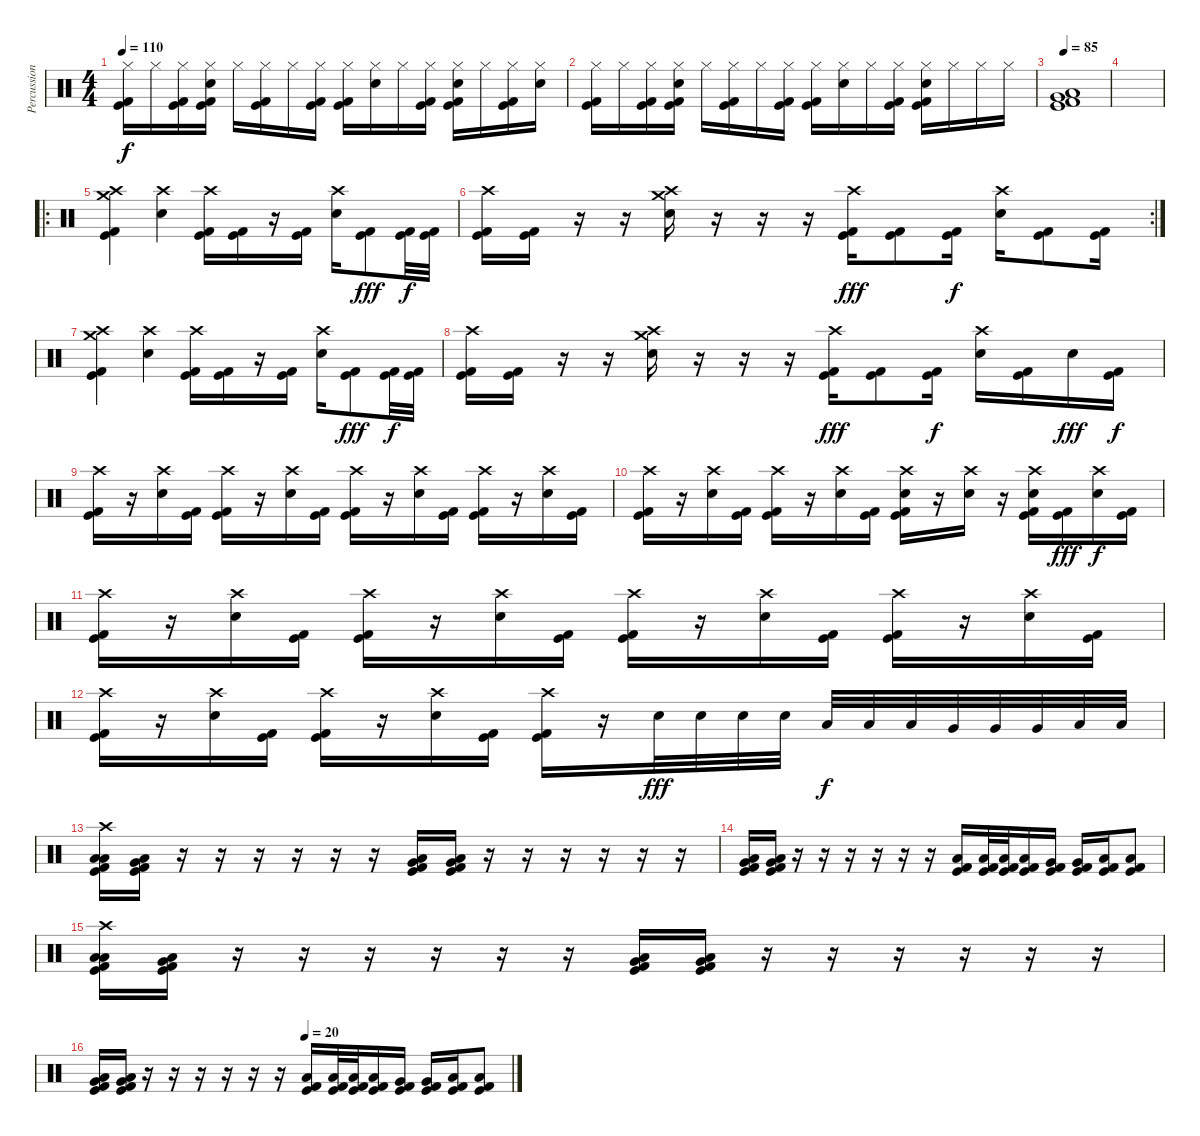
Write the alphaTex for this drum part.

\track ("Percussion" "Percussion") {instrument percussion}
\staff {score}
\articulation defaults
\ts (4 4)
\tempo 110
\clef neutral
\ks c
("Hi-Hat (closed)" "Kick (hit)" "Kick (hit) 2").16{dy f} "Hi-Hat (closed)".16 ("Hi-Hat (closed)" "Kick (hit)" "Kick (hit) 2").16 ("Hi-Hat (closed)" "Electric Snare (hit)" "Kick (hit)" "Kick (hit) 2").16 "Hi-Hat (closed)".16 ("Hi-Hat (closed)" "Kick (hit)" "Kick (hit) 2").16 "Hi-Hat (closed)".16 ("Hi-Hat (closed)" "Kick (hit)" "Kick (hit) 2").16 ("Hi-Hat (closed)" "Kick (hit)" "Kick (hit) 2").16 ("Hi-Hat (closed)" "Electric Snare (hit)").16 "Hi-Hat (closed)".16 ("Hi-Hat (closed)" "Kick (hit)" "Kick (hit) 2").16 ("Hi-Hat (closed)" "Electric Snare (hit)" "Kick (hit)" "Kick (hit) 2").16 "Hi-Hat (closed)".16 ("Hi-Hat (closed)" "Kick (hit)" "Kick (hit) 2").16 ("Hi-Hat (closed)" "Electric Snare (hit)").16 |
("Hi-Hat (closed)" "Kick (hit)" "Kick (hit) 2").16 "Hi-Hat (closed)".16 ("Hi-Hat (closed)" "Kick (hit)" "Kick (hit) 2").16 ("Hi-Hat (closed)" "Electric Snare (hit)" "Kick (hit)" "Kick (hit) 2").16 "Hi-Hat (closed)".16 ("Hi-Hat (closed)" "Kick (hit)" "Kick (hit) 2").16 "Hi-Hat (closed)".16 ("Hi-Hat (closed)" "Kick (hit)" "Kick (hit) 2").16 ("Hi-Hat (closed)" "Kick (hit)" "Kick (hit) 2").16 ("Hi-Hat (closed)" "Electric Snare (hit)").16 "Hi-Hat (closed)".16 ("Hi-Hat (closed)" "Kick (hit)" "Kick (hit) 2").16 ("Hi-Hat (closed)" "Electric Snare (hit)" "Kick (hit)" "Kick (hit) 2").16 "Hi-Hat (closed)".16 "Hi-Hat (closed)".16 "Hi-Hat (closed)".16 |
\tempo 85
("Very Low Tom (hit)" "Low Floor Tom (hit)" "Kick (hit)" "Kick (hit) 2").1 |
|
\ro
("Crash high (hit)" "Crash medium (hit)" "Kick (hit)" "Kick (hit) 2").4 ("Crash high (hit)" "Electric Snare (hit)").4 ("Crash high (hit)" "Kick (hit)" "Kick (hit) 2").16 ("Kick (hit)" "Kick (hit) 2").16 r.16 ("Kick (hit)" "Kick (hit) 2").16 ("Crash high (hit)" "Electric Snare (hit)").16 ("Kick (hit)" "Kick (hit) 2").8{dy fff} ("Kick (hit)" "Kick (hit) 2").32{dy f} ("Kick (hit)" "Kick (hit) 2").32 |
\rc 2
("Crash high (hit)" "Kick (hit)" "Kick (hit) 2").16 ("Kick (hit)" "Kick (hit) 2").16 r.16 r.16 ("Crash high (hit)" "Crash medium (hit)" "Electric Snare (hit)").16 r.16 r.16 r.16 ("Crash high (hit)" "Kick (hit)" "Kick (hit) 2").16{dy fff} ("Kick (hit)" "Kick (hit) 2").8 ("Kick (hit)" "Kick (hit) 2").16{dy f} ("Crash high (hit)" "Electric Snare (hit)").16 ("Kick (hit)" "Kick (hit) 2").8 ("Kick (hit)" "Kick (hit) 2").16 |
("Crash high (hit)" "Crash medium (hit)" "Kick (hit)" "Kick (hit) 2").4 ("Crash high (hit)" "Electric Snare (hit)").4 ("Crash high (hit)" "Kick (hit)" "Kick (hit) 2").16 ("Kick (hit)" "Kick (hit) 2").16 r.16 ("Kick (hit)" "Kick (hit) 2").16 ("Crash high (hit)" "Electric Snare (hit)").16 ("Kick (hit)" "Kick (hit) 2").8{dy fff} ("Kick (hit)" "Kick (hit) 2").32{dy f} ("Kick (hit)" "Kick (hit) 2").32 |
("Crash high (hit)" "Kick (hit)" "Kick (hit) 2").16 ("Kick (hit)" "Kick (hit) 2").16 r.16 r.16 ("Crash high (hit)" "Crash medium (hit)" "Electric Snare (hit)").16 r.16 r.16 r.16 ("Crash high (hit)" "Kick (hit)" "Kick (hit) 2").16{dy fff} ("Kick (hit)" "Kick (hit) 2").8 ("Kick (hit)" "Kick (hit) 2").16{dy f} ("Crash high (hit)" "Electric Snare (hit)").16 ("Kick (hit)" "Kick (hit) 2").16 "Electric Snare (hit)".16{dy fff} ("Kick (hit)" "Kick (hit) 2").16{dy f} |
("Crash high (hit)" "Kick (hit) 2" "Kick (hit)").16 r.16 ("Crash high (hit)" "Electric Snare (hit)").16 ("Kick (hit) 2" "Kick (hit)").16 ("Crash high (hit)" "Kick (hit) 2" "Kick (hit)").16 r.16 ("Crash high (hit)" "Electric Snare (hit)").16 ("Kick (hit) 2" "Kick (hit)").16 ("Crash high (hit)" "Kick (hit) 2" "Kick (hit)").16 r.16 ("Crash high (hit)" "Electric Snare (hit)").16 ("Kick (hit) 2" "Kick (hit)").16 ("Crash high (hit)" "Kick (hit) 2" "Kick (hit)").16 r.16 ("Crash high (hit)" "Electric Snare (hit)").16 ("Kick (hit) 2" "Kick (hit)").16 |
("Crash high (hit)" "Kick (hit) 2" "Kick (hit)").16 r.16 ("Crash high (hit)" "Electric Snare (hit)").16 ("Kick (hit) 2" "Kick (hit)").16 ("Crash high (hit)" "Kick (hit) 2" "Kick (hit)").16 r.16 ("Crash high (hit)" "Electric Snare (hit)").16 ("Kick (hit) 2" "Kick (hit)").16 ("Crash high (hit)" "Electric Snare (hit)" "Kick (hit) 2" "Kick (hit)").16 r.16 ("Crash high (hit)" "Electric Snare (hit)").16 r.16 ("Crash high (hit)" "Electric Snare (hit)" "Kick (hit) 2" "Kick (hit)").16 ("Kick (hit) 2" "Kick (hit)").16{dy fff} ("Crash high (hit)" "Electric Snare (hit)").16{dy f} ("Kick (hit) 2" "Kick (hit)").16 |
("Crash high (hit)" "Kick (hit) 2" "Kick (hit)").16 r.16 ("Crash high (hit)" "Electric Snare (hit)").16 ("Kick (hit) 2" "Kick (hit)").16 ("Crash high (hit)" "Kick (hit) 2" "Kick (hit)").16 r.16 ("Crash high (hit)" "Electric Snare (hit)").16 ("Kick (hit) 2" "Kick (hit)").16 ("Crash high (hit)" "Kick (hit) 2" "Kick (hit)").16 r.16 ("Crash high (hit)" "Electric Snare (hit)").16 ("Kick (hit) 2" "Kick (hit)").16 ("Crash high (hit)" "Kick (hit) 2" "Kick (hit)").16 r.16 ("Crash high (hit)" "Electric Snare (hit)").16 ("Kick (hit) 2" "Kick (hit)").16 |
("Crash high (hit)" "Kick (hit) 2" "Kick (hit)").16 r.16 ("Crash high (hit)" "Electric Snare (hit)").16 ("Kick (hit) 2" "Kick (hit)").16 ("Crash high (hit)" "Kick (hit) 2" "Kick (hit)").16 r.16 ("Crash high (hit)" "Electric Snare (hit)").16 ("Kick (hit) 2" "Kick (hit)").16 ("Crash high (hit)" "Kick (hit) 2" "Kick (hit)").16 r.16 "Electric Snare (hit)".32{dy fff} "Electric Snare (hit)".32 "Electric Snare (hit)".32 "Electric Snare (hit)".32 "Low Tom (hit)".32{dy f} "Low Tom (hit)".32 "Low Tom (hit)".32 "Very Low Tom (hit)".32 "Very Low Tom (hit)".32 "Very Low Tom (hit)".32 "Low Floor Tom (hit)".32 "Low Floor Tom (hit)".32 |
("Crash high (hit)" "Low Floor Tom (hit)" "Low Floor Tom (hit)" "Kick (hit)" "Kick (hit) 2").16 ("Low Floor Tom (hit)" "Very Low Tom (hit)" "Kick (hit)" "Kick (hit) 2").16 r.16 r.16 r.16 r.16 r.16 r.16 ("Low Floor Tom (hit)" "Very Low Tom (hit)" "Kick (hit)" "Kick (hit) 2").16 ("Low Floor Tom (hit)" "Very Low Tom (hit)" "Kick (hit)" "Kick (hit) 2").16 r.16 r.16 r.16 r.16 r.16 r.16 |
("Low Floor Tom (hit)" "Very Low Tom (hit)" "Kick (hit)" "Kick (hit) 2").16 ("Low Floor Tom (hit)" "Very Low Tom (hit)" "Kick (hit)" "Kick (hit) 2").16 r.16 r.16 r.16 r.16 r.16 r.16 ("Low Tom (hit)" "Kick (hit)" "Kick (hit) 2").16 ("Low Tom (hit)" "Kick (hit)" "Kick (hit) 2").32 ("Low Tom (hit)" "Kick (hit)" "Kick (hit) 2").32 ("Low Tom (hit)" "Kick (hit)" "Kick (hit) 2").16 ("Very Low Tom (hit)" "Kick (hit)" "Kick (hit) 2").16 ("Very Low Tom (hit)" "Kick (hit)" "Kick (hit) 2").16 ("Low Floor Tom (hit)" "Kick (hit)" "Kick (hit) 2").16 ("Low Floor Tom (hit)" "Kick (hit)" "Kick (hit) 2").8 |
("Crash high (hit)" "Low Floor Tom (hit)" "Low Floor Tom (hit)" "Kick (hit)" "Kick (hit) 2").16 ("Low Floor Tom (hit)" "Very Low Tom (hit)" "Kick (hit)" "Kick (hit) 2").16 r.16 r.16 r.16 r.16 r.16 r.16 ("Low Floor Tom (hit)" "Very Low Tom (hit)" "Kick (hit)" "Kick (hit) 2").16 ("Low Floor Tom (hit)" "Very Low Tom (hit)" "Kick (hit)" "Kick (hit) 2").16 r.16 r.16 r.16 r.16 r.16 r.16 |
\tempo (20 0.5)
("Low Floor Tom (hit)" "Very Low Tom (hit)" "Kick (hit)" "Kick (hit) 2").16 ("Low Floor Tom (hit)" "Very Low Tom (hit)" "Kick (hit)" "Kick (hit) 2").16 r.16 r.16 r.16 r.16 r.16 r.16 ("Low Tom (hit)" "Kick (hit)" "Kick (hit) 2").16 ("Low Tom (hit)" "Kick (hit)" "Kick (hit) 2").32 ("Low Tom (hit)" "Kick (hit)" "Kick (hit) 2").32 ("Low Tom (hit)" "Kick (hit)" "Kick (hit) 2").16 ("Very Low Tom (hit)" "Kick (hit)" "Kick (hit) 2").16 ("Very Low Tom (hit)" "Kick (hit)" "Kick (hit) 2").16 ("Low Floor Tom (hit)" "Kick (hit)" "Kick (hit) 2").16 ("Low Floor Tom (hit)" "Kick (hit)" "Kick (hit) 2").8
